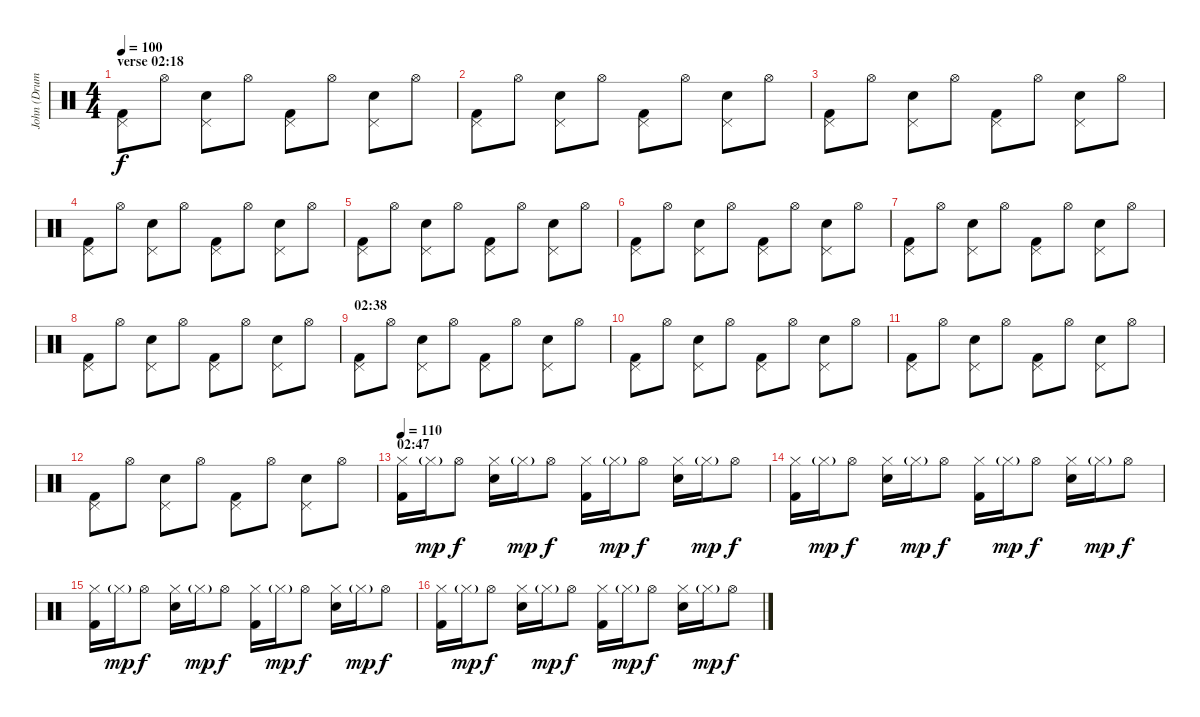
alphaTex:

\track ("John (Drums)" "John (Drum") {instrument percussion}
\staff {score}
\articulation defaults
\ts (4 4)
\section ("" "verse 02:18")
\tempo 95
\tempo 100
\clef neutral
\ks c
("Pedal Hi-Hat (hit)" "Kick (hit) 2").8{dy f} "Hi-Hat (open)".8 ("Pedal Hi-Hat (hit)" "Snare (hit) 2").8 "Hi-Hat (open)".8 ("Pedal Hi-Hat (hit)" "Kick (hit) 2").8 "Hi-Hat (open)".8 ("Pedal Hi-Hat (hit)" "Snare (hit) 2").8 "Hi-Hat (open)".8 |
("Pedal Hi-Hat (hit)" "Kick (hit) 2").8 "Hi-Hat (open)".8 ("Pedal Hi-Hat (hit)" "Snare (hit) 2").8 "Hi-Hat (open)".8 ("Pedal Hi-Hat (hit)" "Kick (hit) 2").8 "Hi-Hat (open)".8 ("Pedal Hi-Hat (hit)" "Snare (hit) 2").8 "Hi-Hat (open)".8 |
("Pedal Hi-Hat (hit)" "Kick (hit) 2").8 "Hi-Hat (open)".8 ("Pedal Hi-Hat (hit)" "Snare (hit) 2").8 "Hi-Hat (open)".8 ("Pedal Hi-Hat (hit)" "Kick (hit) 2").8 "Hi-Hat (open)".8 ("Pedal Hi-Hat (hit)" "Snare (hit) 2").8 "Hi-Hat (open)".8 |
("Pedal Hi-Hat (hit)" "Kick (hit) 2").8 "Hi-Hat (open)".8 ("Pedal Hi-Hat (hit)" "Snare (hit) 2").8 "Hi-Hat (open)".8 ("Pedal Hi-Hat (hit)" "Kick (hit) 2").8 "Hi-Hat (open)".8 ("Pedal Hi-Hat (hit)" "Snare (hit) 2").8 "Hi-Hat (open)".8 |
("Pedal Hi-Hat (hit)" "Kick (hit) 2").8 "Hi-Hat (open)".8 ("Pedal Hi-Hat (hit)" "Snare (hit) 2").8 "Hi-Hat (open)".8 ("Pedal Hi-Hat (hit)" "Kick (hit) 2").8 "Hi-Hat (open)".8 ("Pedal Hi-Hat (hit)" "Snare (hit) 2").8 "Hi-Hat (open)".8 |
("Pedal Hi-Hat (hit)" "Kick (hit) 2").8 "Hi-Hat (open)".8 ("Pedal Hi-Hat (hit)" "Snare (hit) 2").8 "Hi-Hat (open)".8 ("Pedal Hi-Hat (hit)" "Kick (hit) 2").8 "Hi-Hat (open)".8 ("Pedal Hi-Hat (hit)" "Snare (hit) 2").8 "Hi-Hat (open)".8 |
("Pedal Hi-Hat (hit)" "Kick (hit) 2").8 "Hi-Hat (open)".8 ("Pedal Hi-Hat (hit)" "Snare (hit) 2").8 "Hi-Hat (open)".8 ("Pedal Hi-Hat (hit)" "Kick (hit) 2").8 "Hi-Hat (open)".8 ("Pedal Hi-Hat (hit)" "Snare (hit) 2").8 "Hi-Hat (open)".8 |
("Pedal Hi-Hat (hit)" "Kick (hit) 2").8 "Hi-Hat (open)".8 ("Pedal Hi-Hat (hit)" "Snare (hit) 2").8 "Hi-Hat (open)".8 ("Pedal Hi-Hat (hit)" "Kick (hit) 2").8 "Hi-Hat (open)".8 ("Pedal Hi-Hat (hit)" "Snare (hit) 2").8 "Hi-Hat (open)".8 |
\section ("" "02:38")
("Pedal Hi-Hat (hit)" "Kick (hit) 2").8 "Hi-Hat (open)".8 ("Pedal Hi-Hat (hit)" "Snare (hit) 2").8 "Hi-Hat (open)".8 ("Pedal Hi-Hat (hit)" "Kick (hit) 2").8 "Hi-Hat (open)".8 ("Pedal Hi-Hat (hit)" "Snare (hit) 2").8 "Hi-Hat (open)".8 |
("Pedal Hi-Hat (hit)" "Kick (hit) 2").8 "Hi-Hat (open)".8 ("Pedal Hi-Hat (hit)" "Snare (hit) 2").8 "Hi-Hat (open)".8 ("Pedal Hi-Hat (hit)" "Kick (hit) 2").8 "Hi-Hat (open)".8 ("Pedal Hi-Hat (hit)" "Snare (hit) 2").8 "Hi-Hat (open)".8 |
("Pedal Hi-Hat (hit)" "Kick (hit) 2").8 "Hi-Hat (open)".8 ("Pedal Hi-Hat (hit)" "Snare (hit) 2").8 "Hi-Hat (open)".8 ("Pedal Hi-Hat (hit)" "Kick (hit) 2").8 "Hi-Hat (open)".8 ("Pedal Hi-Hat (hit)" "Snare (hit) 2").8 "Hi-Hat (open)".8 |
("Pedal Hi-Hat (hit)" "Kick (hit) 2").8 "Hi-Hat (open)".8 ("Pedal Hi-Hat (hit)" "Snare (hit) 2").8 "Hi-Hat (open)".8 ("Pedal Hi-Hat (hit)" "Kick (hit) 2").8 "Hi-Hat (open)".8 ("Pedal Hi-Hat (hit)" "Snare (hit) 2").8 "Hi-Hat (open)".8 |
\section ("" "02:47")
\tempo 110
("Hi-Hat (closed)" "Kick (hit) 2").16 "Hi-Hat (closed)"{g}.16{dy mp} "Hi-Hat (open)".8{dy f} ("Hi-Hat (closed)" "Snare (hit) 2").16 "Hi-Hat (closed)"{g}.16{dy mp} "Hi-Hat (open)".8{dy f} ("Hi-Hat (closed)" "Kick (hit) 2").16 "Hi-Hat (closed)"{g}.16{dy mp} "Hi-Hat (open)".8{dy f} ("Hi-Hat (closed)" "Snare (hit) 2").16 "Hi-Hat (closed)"{g}.16{dy mp} "Hi-Hat (open)".8{dy f} |
("Hi-Hat (closed)" "Kick (hit) 2").16 "Hi-Hat (closed)"{g}.16{dy mp} "Hi-Hat (open)".8{dy f} ("Hi-Hat (closed)" "Snare (hit) 2").16 "Hi-Hat (closed)"{g}.16{dy mp} "Hi-Hat (open)".8{dy f} ("Hi-Hat (closed)" "Kick (hit) 2").16 "Hi-Hat (closed)"{g}.16{dy mp} "Hi-Hat (open)".8{dy f} ("Hi-Hat (closed)" "Snare (hit) 2").16 "Hi-Hat (closed)"{g}.16{dy mp} "Hi-Hat (open)".8{dy f} |
("Hi-Hat (closed)" "Kick (hit) 2").16 "Hi-Hat (closed)"{g}.16{dy mp} "Hi-Hat (open)".8{dy f} ("Hi-Hat (closed)" "Snare (hit) 2").16 "Hi-Hat (closed)"{g}.16{dy mp} "Hi-Hat (open)".8{dy f} ("Hi-Hat (closed)" "Kick (hit) 2").16 "Hi-Hat (closed)"{g}.16{dy mp} "Hi-Hat (open)".8{dy f} ("Hi-Hat (closed)" "Snare (hit) 2").16 "Hi-Hat (closed)"{g}.16{dy mp} "Hi-Hat (open)".8{dy f} |
("Hi-Hat (closed)" "Kick (hit) 2").16 "Hi-Hat (closed)"{g}.16{dy mp} "Hi-Hat (open)".8{dy f} ("Hi-Hat (closed)" "Snare (hit) 2").16 "Hi-Hat (closed)"{g}.16{dy mp} "Hi-Hat (open)".8{dy f} ("Hi-Hat (closed)" "Kick (hit) 2").16 "Hi-Hat (closed)"{g}.16{dy mp} "Hi-Hat (open)".8{dy f} ("Hi-Hat (closed)" "Snare (hit) 2").16 "Hi-Hat (closed)"{g}.16{dy mp} "Hi-Hat (open)".8{dy f}
